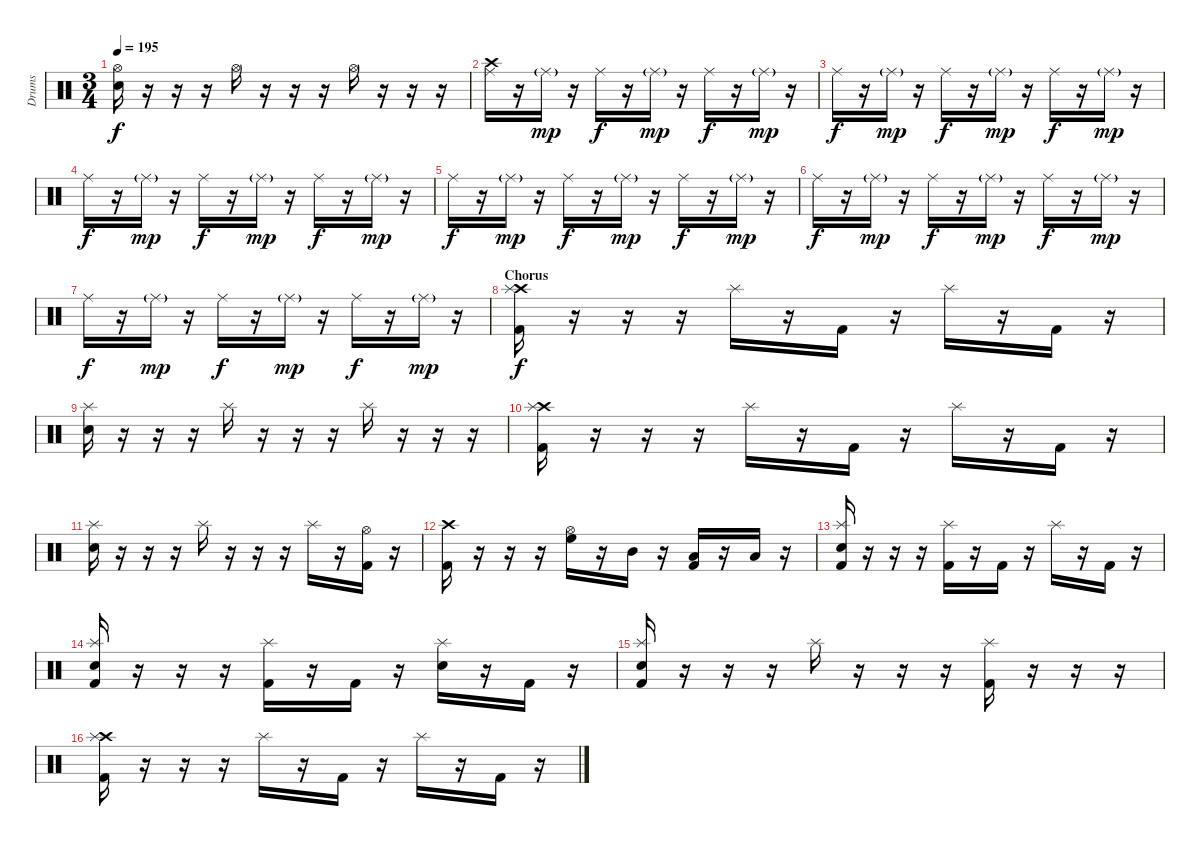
\track ("Drums" "Drums") {instrument percussion}
\staff {score}
\articulation defaults
\ts (3 4)
\tempo 195
\clef neutral
\ks c
("Hi-Hat (open)" "Snare (hit) 2").16{dy f} r.16 r.16 r.16 "Hi-Hat (open)".16 r.16 r.16 r.16 "Hi-Hat (open)".16 r.16 r.16 r.16 |
("Crash high (hit)" "Ride (middle)").16 r.16 "Ride (middle)"{g}.16{dy mp} r.16 "Ride (middle)".16{dy f} r.16 "Ride (middle)"{g}.16{dy mp} r.16 "Ride (middle)".16{dy f} r.16 "Ride (middle)"{g}.16{dy mp} r.16 |
"Ride (middle)".16{dy f} r.16 "Ride (middle)"{g}.16{dy mp} r.16 "Ride (middle)".16{dy f} r.16 "Ride (middle)"{g}.16{dy mp} r.16 "Ride (middle)".16{dy f} r.16 "Ride (middle)"{g}.16{dy mp} r.16 |
"Ride (middle)".16{dy f} r.16 "Ride (middle)"{g}.16{dy mp} r.16 "Ride (middle)".16{dy f} r.16 "Ride (middle)"{g}.16{dy mp} r.16 "Ride (middle)".16{dy f} r.16 "Ride (middle)"{g}.16{dy mp} r.16 |
"Ride (middle)".16{dy f} r.16 "Ride (middle)"{g}.16{dy mp} r.16 "Ride (middle)".16{dy f} r.16 "Ride (middle)"{g}.16{dy mp} r.16 "Ride (middle)".16{dy f} r.16 "Ride (middle)"{g}.16{dy mp} r.16 |
"Ride (middle)".16{dy f} r.16 "Ride (middle)"{g}.16{dy mp} r.16 "Ride (middle)".16{dy f} r.16 "Ride (middle)"{g}.16{dy mp} r.16 "Ride (middle)".16{dy f} r.16 "Ride (middle)"{g}.16{dy mp} r.16 |
"Ride (middle)".16{dy f} r.16 "Ride (middle)"{g}.16{dy mp} r.16 "Ride (middle)".16{dy f} r.16 "Ride (middle)"{g}.16{dy mp} r.16 "Ride (middle)".16{dy f} r.16 "Ride (middle)"{g}.16{dy mp} r.16 |
\section ("" "Chorus")
("Crash high (hit)" "Splash (hit)" "Kick (hit) 2").16{dy f} r.16 r.16 r.16 "Splash (hit)".16 r.16 "Kick (hit) 2".16 r.16 "Splash (hit)".16 r.16 "Kick (hit) 2".16 r.16 |
("Splash (hit)" "Snare (hit) 2").16 r.16 r.16 r.16 "Splash (hit)".16 r.16 r.16 r.16 "Splash (hit)".16 r.16 r.16 r.16 |
("Crash high (hit)" "Splash (hit)" "Kick (hit) 2").16 r.16 r.16 r.16 "Splash (hit)".16 r.16 "Kick (hit) 2".16 r.16 "Splash (hit)".16 r.16 "Kick (hit) 2".16 r.16 |
("Splash (hit)" "Snare (hit) 2").16 r.16 r.16 r.16 "Splash (hit)".16 r.16 r.16 r.16 "Splash (hit)".16 r.16 ("Hi-Hat (open)" "Kick (hit) 2").16 r.16 |
("Crash high (hit)" "Kick (hit) 2").16 r.16 r.16 r.16 ("Hi-Hat (open)" "High Floor Tom (hit)").16 r.16 "Mid Tom (hit)".16 r.16 ("Low Tom (hit)" "Kick (hit) 2").16 r.16 "Low Tom (hit)".16 r.16 |
("Splash (hit)" "Snare (hit) 2" "Kick (hit) 2").16 r.16 r.16 r.16 ("Splash (hit)" "Kick (hit) 2").16 r.16 "Kick (hit) 2".16 r.16 "Splash (hit)".16 r.16 "Kick (hit) 2".16 r.16 |
("Splash (hit)" "Snare (hit) 2" "Kick (hit) 2").16 r.16 r.16 r.16 ("Splash (hit)" "Kick (hit) 2").16 r.16 "Kick (hit) 2".16 r.16 ("Splash (hit)" "Snare (hit) 2").16 r.16 "Kick (hit) 2".16 r.16 |
("Splash (hit)" "Snare (hit) 2" "Kick (hit) 2").16 r.16 r.16 r.16 "Splash (hit)".16 r.16 r.16 r.16 ("Splash (hit)" "Kick (hit) 2").16 r.16 r.16 r.16 |
("Crash high (hit)" "Splash (hit)" "Kick (hit) 2").16 r.16 r.16 r.16 "Splash (hit)".16 r.16 "Kick (hit) 2".16 r.16 "Splash (hit)".16 r.16 "Kick (hit) 2".16 r.16
